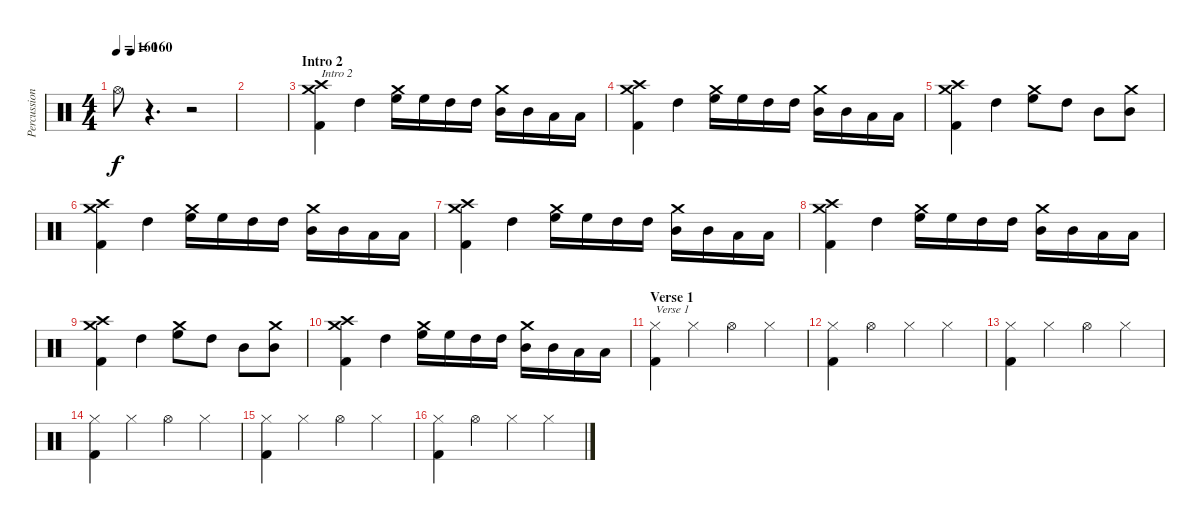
\track ("Percussion" "Percussion") {instrument percussion}
\staff {score}
\articulation defaults
\ts (4 4)
\tempo 160
\tempo (160 0.125)
\clef neutral
\ks c "Hi-Hat (open)".8{dy f}
r.4{d} r.2 |
|
\section ("" "Intro 2")
("Crash high (hit)" "Crash medium (hit)" "Kick (hit) 2").4{txt "Intro 2" volume 13} "High Tom (hit)".4 ("Crash medium (hit)" "High Floor Tom (hit)").16 "High Floor Tom (hit)".16 "High Tom (hit)".16 "High Tom (hit)".16 ("Crash medium (hit)" "Mid Tom (hit)").16 "Mid Tom (hit)".16 "Low Tom (hit)".16 "Low Tom (hit)".16 |
("Crash high (hit)" "Crash medium (hit)" "Kick (hit) 2").4 "High Tom (hit)".4 ("Crash medium (hit)" "High Floor Tom (hit)").16 "High Floor Tom (hit)".16 "High Tom (hit)".16 "High Tom (hit)".16 ("Crash medium (hit)" "Mid Tom (hit)").16 "Mid Tom (hit)".16 "Low Tom (hit)".16 "Low Tom (hit)".16 |
("Crash high (hit)" "Crash medium (hit)" "Kick (hit) 2").4 "High Tom (hit)".4 ("Crash medium (hit)" "High Floor Tom (hit)").8 "High Tom (hit)".8 "Mid Tom (hit)".8 ("Crash medium (hit)" "Mid Tom (hit)").8 |
("Crash high (hit)" "Crash medium (hit)" "Kick (hit) 2").4 "High Tom (hit)".4 ("Crash medium (hit)" "High Floor Tom (hit)").16 "High Floor Tom (hit)".16 "High Tom (hit)".16 "High Tom (hit)".16 ("Crash medium (hit)" "Mid Tom (hit)").16 "Mid Tom (hit)".16 "Low Tom (hit)".16 "Low Tom (hit)".16 |
("Crash high (hit)" "Crash medium (hit)" "Kick (hit) 2").4 "High Tom (hit)".4 ("Crash medium (hit)" "High Floor Tom (hit)").16 "High Floor Tom (hit)".16 "High Tom (hit)".16 "High Tom (hit)".16 ("Crash medium (hit)" "Mid Tom (hit)").16 "Mid Tom (hit)".16 "Low Tom (hit)".16 "Low Tom (hit)".16 |
("Crash high (hit)" "Crash medium (hit)" "Kick (hit) 2").4 "High Tom (hit)".4 ("Crash medium (hit)" "High Floor Tom (hit)").16 "High Floor Tom (hit)".16 "High Tom (hit)".16 "High Tom (hit)".16 ("Crash medium (hit)" "Mid Tom (hit)").16 "Mid Tom (hit)".16 "Low Tom (hit)".16 "Low Tom (hit)".16 |
("Crash high (hit)" "Crash medium (hit)" "Kick (hit) 2").4 "High Tom (hit)".4 ("Crash medium (hit)" "High Floor Tom (hit)").8 "High Tom (hit)".8 "Mid Tom (hit)".8 ("Crash medium (hit)" "Mid Tom (hit)").8 |
("Crash high (hit)" "Crash medium (hit)" "Kick (hit) 2").4 "High Tom (hit)".4 ("Crash medium (hit)" "High Floor Tom (hit)").16 "High Floor Tom (hit)".16 "High Tom (hit)".16 "High Tom (hit)".16 ("Crash medium (hit)" "Mid Tom (hit)").16 "Mid Tom (hit)".16 "Low Tom (hit)".16 "Low Tom (hit)".16 |
\section ("" "Verse 1")
("Hi-Hat (closed)" "Kick (hit) 2").4{txt "Verse 1"} "Hi-Hat (closed)".4 "Hi-Hat (open)".4 "Hi-Hat (closed)".4 |
("Hi-Hat (closed)" "Kick (hit) 2").4 "Hi-Hat (open)".4 "Hi-Hat (closed)".4 "Hi-Hat (closed)".4 |
("Hi-Hat (closed)" "Kick (hit) 2").4 "Hi-Hat (closed)".4 "Hi-Hat (open)".4 "Hi-Hat (closed)".4 |
("Hi-Hat (closed)" "Kick (hit) 2").4 "Hi-Hat (closed)".4 "Hi-Hat (open)".4 "Hi-Hat (closed)".4 |
("Hi-Hat (closed)" "Kick (hit) 2").4 "Hi-Hat (closed)".4 "Hi-Hat (open)".4 "Hi-Hat (closed)".4 |
("Hi-Hat (closed)" "Kick (hit) 2").4 "Hi-Hat (open)".4 "Hi-Hat (closed)".4 "Hi-Hat (closed)".4
